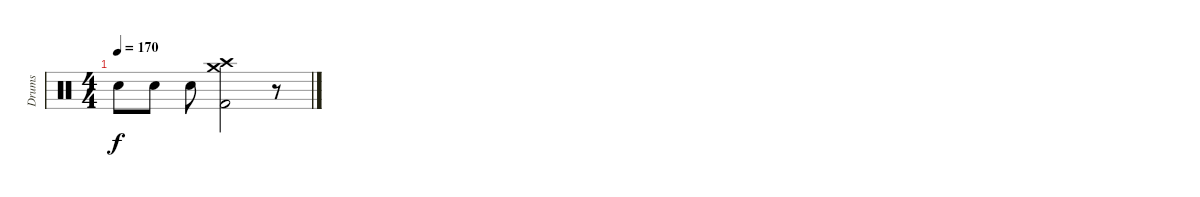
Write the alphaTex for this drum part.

\track ("Drums" "Drums") {instrument percussion}
\staff {score}
\articulation defaults
\ts (4 4)
\tempo 170
\clef neutral
\ks c "Electric Snare (hit)".8{dy f} "Electric Snare (hit)".8 "Electric Snare (hit)".8
("Kick (hit) 2" "Crash medium (hit)" "Crash high (hit)").2 r.8
